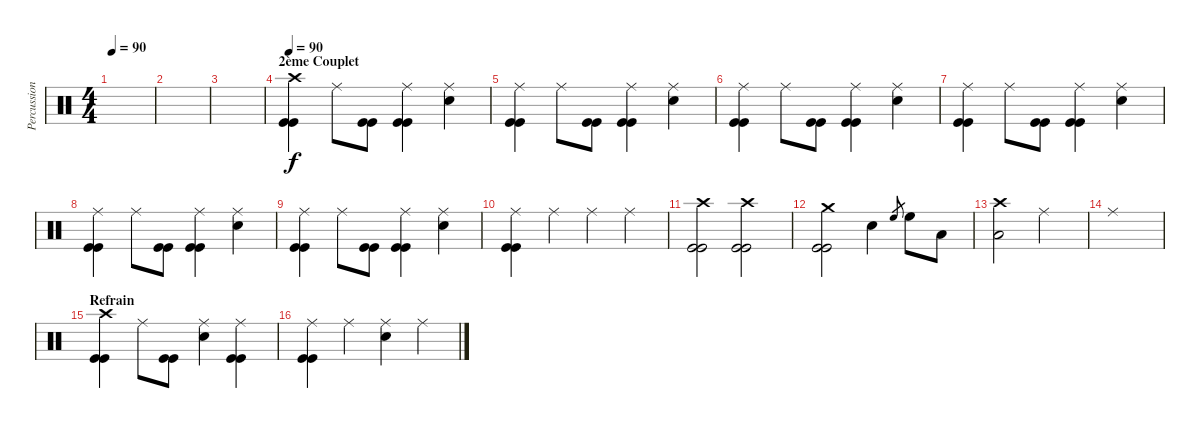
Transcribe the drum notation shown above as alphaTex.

\track ("Percussions" "Percussion") {instrument percussion}
\staff {score}
\articulation defaults
\ts (4 4)
\tempo 90
\clef neutral
\ks c
|
|
|
\section ("" "2ème Couplet")
\tempo 90
("Crash high (hit)" "Kick (hit)" "Kick (hit)").4 "Ride (middle)".8 ("Kick (hit)" "Kick (hit)").8 ("Ride (middle)" "Kick (hit)" "Kick (hit)").4 ("Ride (middle)" "Electric Snare (hit)").4 |
("Ride (middle)" "Kick (hit)" "Kick (hit)").4 "Ride (middle)".8 ("Kick (hit)" "Kick (hit)").8 ("Ride (middle)" "Kick (hit)" "Kick (hit)").4 ("Ride (middle)" "Electric Snare (hit)").4 |
("Ride (middle)" "Kick (hit)" "Kick (hit)").4 "Ride (middle)".8 ("Kick (hit)" "Kick (hit)").8 ("Ride (middle)" "Kick (hit)" "Kick (hit)").4 ("Ride (middle)" "Electric Snare (hit)").4 |
("Ride (middle)" "Kick (hit)" "Kick (hit)").4 "Ride (middle)".8 ("Kick (hit)" "Kick (hit)").8 ("Ride (middle)" "Kick (hit)" "Kick (hit)").4 ("Ride (middle)" "Electric Snare (hit)").4 |
("Ride (middle)" "Kick (hit)" "Kick (hit)").4 "Ride (middle)".8 ("Kick (hit)" "Kick (hit)").8 ("Ride (middle)" "Kick (hit)" "Kick (hit)").4 ("Ride (middle)" "Electric Snare (hit)").4 |
("Ride (middle)" "Kick (hit)" "Kick (hit)").4 "Ride (middle)".8 ("Kick (hit)" "Kick (hit)").8 ("Ride (middle)" "Kick (hit)" "Kick (hit)").4 ("Ride (middle)" "Electric Snare (hit)").4 |
("Ride (middle)" "Kick (hit)" "Kick (hit)").4 "Ride (middle)".4 "Ride (middle)".4 "Ride (middle)".4 |
("Crash high (hit)" "Kick (hit)" "Kick (hit)").2 ("Crash high (hit)" "Kick (hit)" "Kick (hit)").2 |
("Crash medium (hit)" "Kick (hit)" "Kick (hit)").2 "Snare (hit) 2".4 "High Floor Tom (hit)".8{gr} "High Floor Tom (hit)".8 "Low Tom (hit)".8 |
("Crash high (hit)" "Low Floor Tom (hit)").2 "Ride (middle)".2 |
"Ride (middle)".1 |
\section ("" "Refrain")
("Crash high (hit)" "Kick (hit)" "Kick (hit)").4 "Ride (middle)".8 ("Kick (hit)" "Kick (hit)").8 ("Ride (middle)" "Electric Snare (hit)").4 ("Ride (middle)" "Kick (hit)" "Kick (hit)").4 |
("Ride (middle)" "Kick (hit)" "Kick (hit)").4 "Ride (middle)".4 ("Ride (middle)" "Electric Snare (hit)").4 "Ride (middle)".4
